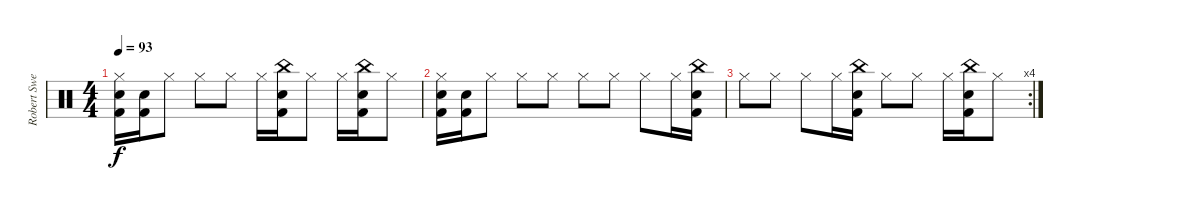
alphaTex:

\track ("Robert Sweet" "Robert Swe") {instrument percussion}
\staff {score}
\articulation defaults
\ts (4 4)
\tempo 93
\clef neutral
\ks c
("Hi-Hat (closed)" "Kick (hit) 2" "Snare (hit) 2").16{dy f} ("Kick (hit) 2" "Snare (hit) 2").16 "Hi-Hat (closed)".8 "Hi-Hat (closed)".8 "Hi-Hat (closed)".8 "Hi-Hat (closed)".16 ("Kick (hit) 2" "Snare (hit) 2" "China (hit)").16 "Hi-Hat (closed)".8 "Hi-Hat (closed)".16 ("Kick (hit) 2" "Snare (hit) 2" "China (hit)").16 "Hi-Hat (closed)".8 |
("Hi-Hat (closed)" "Kick (hit) 2" "Snare (hit) 2").16 ("Kick (hit) 2" "Snare (hit) 2").16 "Hi-Hat (closed)".8 "Hi-Hat (closed)".8 "Hi-Hat (closed)".8 "Hi-Hat (closed)".8 "Hi-Hat (closed)".8 "Hi-Hat (closed)".8 "Hi-Hat (closed)".16 ("Kick (hit) 2" "Snare (hit) 2" "China (hit)").16 |
\rc 4 "Hi-Hat (closed)".8 "Hi-Hat (closed)".8 "Hi-Hat (closed)".8 "Hi-Hat (closed)".16
("Kick (hit) 2" "Snare (hit) 2" "China (hit)").16 "Hi-Hat (closed)".8 "Hi-Hat (closed)".8 "Hi-Hat (closed)".16 ("Kick (hit) 2" "Snare (hit) 2" "China (hit)").16 "Hi-Hat (closed)".8
